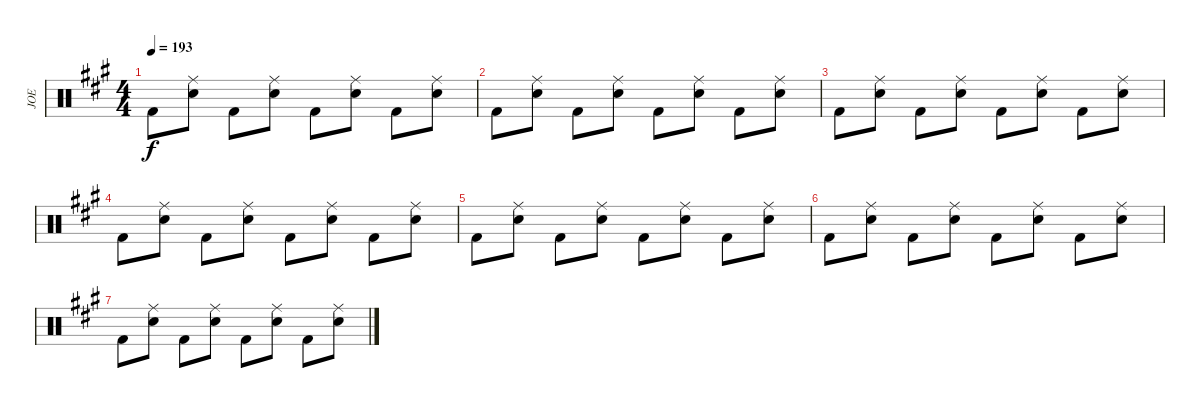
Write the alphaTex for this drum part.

\track ("JOE" "JOE") {instrument percussion}
\staff {score}
\articulation defaults
\ts (4 4)
\tempo 193
\clef neutral
\ks a "Kick (hit) 2".8{dy f}
("Ride (middle)" "Snare (hit) 2").8 "Kick (hit) 2".8 ("Ride (middle)" "Snare (hit) 2").8 "Kick (hit) 2".8 ("Ride (middle)" "Snare (hit) 2").8 "Kick (hit) 2".8 ("Ride (middle)" "Snare (hit) 2").8 |
"Kick (hit) 2".8 ("Ride (middle)" "Snare (hit) 2").8 "Kick (hit) 2".8 ("Ride (middle)" "Snare (hit) 2").8 "Kick (hit) 2".8 ("Ride (middle)" "Snare (hit) 2").8 "Kick (hit) 2".8 ("Ride (middle)" "Snare (hit) 2").8 |
"Kick (hit) 2".8 ("Ride (middle)" "Snare (hit) 2").8 "Kick (hit) 2".8 ("Ride (middle)" "Snare (hit) 2").8 "Kick (hit) 2".8 ("Ride (middle)" "Snare (hit) 2").8 "Kick (hit) 2".8 ("Ride (middle)" "Snare (hit) 2").8 |
"Kick (hit) 2".8 ("Ride (middle)" "Snare (hit) 2").8 "Kick (hit) 2".8 ("Ride (middle)" "Snare (hit) 2").8 "Kick (hit) 2".8 ("Ride (middle)" "Snare (hit) 2").8 "Kick (hit) 2".8 ("Ride (middle)" "Snare (hit) 2").8 |
"Kick (hit) 2".8 ("Ride (middle)" "Snare (hit) 2").8 "Kick (hit) 2".8 ("Ride (middle)" "Snare (hit) 2").8 "Kick (hit) 2".8 ("Ride (middle)" "Snare (hit) 2").8 "Kick (hit) 2".8 ("Ride (middle)" "Snare (hit) 2").8 |
"Kick (hit) 2".8 ("Ride (middle)" "Snare (hit) 2").8 "Kick (hit) 2".8 ("Ride (middle)" "Snare (hit) 2").8 "Kick (hit) 2".8 ("Ride (middle)" "Snare (hit) 2").8 "Kick (hit) 2".8 ("Ride (middle)" "Snare (hit) 2").8 |
"Kick (hit) 2".8 ("Ride (middle)" "Snare (hit) 2").8 "Kick (hit) 2".8 ("Ride (middle)" "Snare (hit) 2").8 "Kick (hit) 2".8 ("Ride (middle)" "Snare (hit) 2").8 "Kick (hit) 2".8 ("Ride (middle)" "Snare (hit) 2").8
